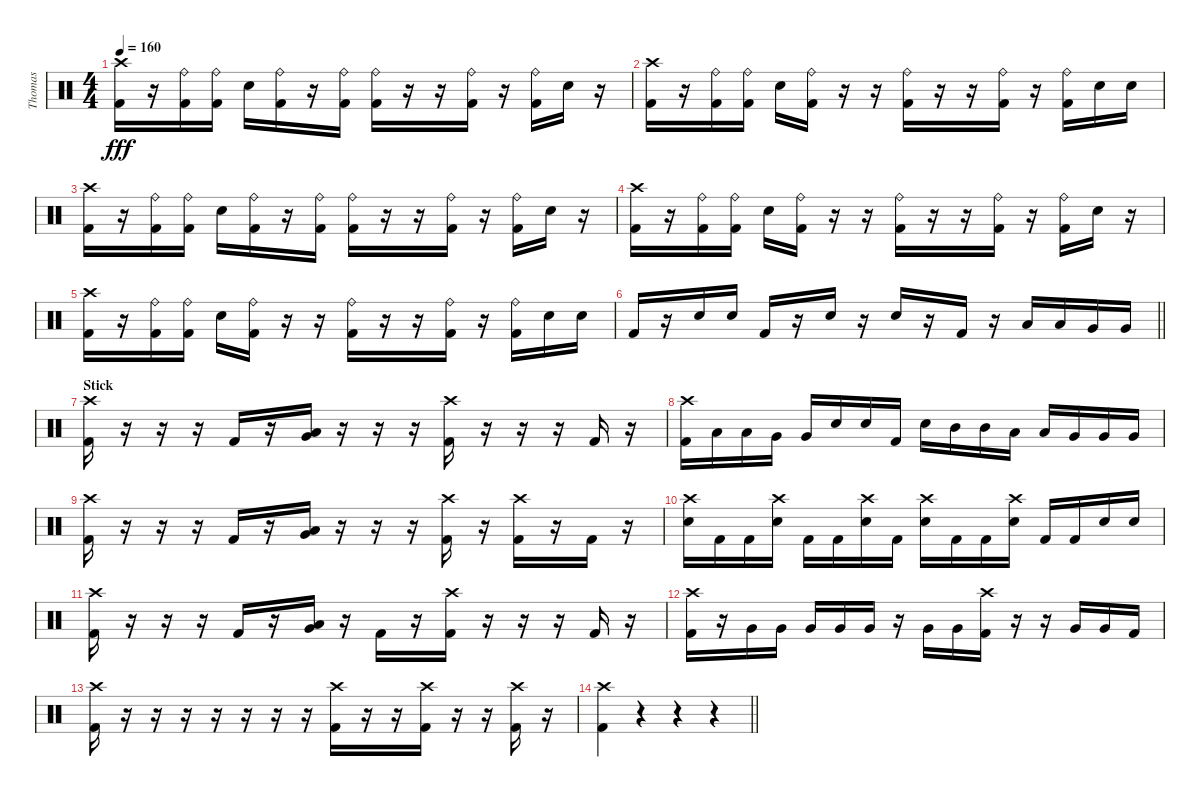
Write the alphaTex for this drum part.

\track ("Thomas " "Thomas ") {instrument percussion}
\staff {score}
\articulation defaults
\ts (4 4)
\tempo 160
\clef neutral
\ks c
("Crash high (hit)" "Kick (hit) 2").16{dy fff} r.16 ("Ride (bell)" "Kick (hit) 2").16 ("Ride (bell)" "Kick (hit) 2").16 "Electric Snare (hit)".16 ("Ride (bell)" "Kick (hit) 2").16 r.16 ("Ride (bell)" "Kick (hit) 2").16 ("Ride (bell)" "Kick (hit) 2").16 r.16 r.16 ("Ride (bell)" "Kick (hit) 2").16 r.16 ("Ride (bell)" "Kick (hit) 2").16 "Electric Snare (hit)".16 r.16 |
("Crash high (hit)" "Kick (hit) 2").16 r.16 ("Ride (bell)" "Kick (hit) 2").16 ("Ride (bell)" "Kick (hit) 2").16 "Electric Snare (hit)".16 ("Ride (bell)" "Kick (hit) 2").16 r.16 r.16 ("Ride (bell)" "Kick (hit) 2").16 r.16 r.16 ("Ride (bell)" "Kick (hit) 2").16 r.16 ("Ride (bell)" "Kick (hit) 2").16 "Electric Snare (hit)".16 "Electric Snare (hit)".16 |
("Crash high (hit)" "Kick (hit) 2").16 r.16 ("Ride (bell)" "Kick (hit) 2").16 ("Ride (bell)" "Kick (hit) 2").16 "Electric Snare (hit)".16 ("Ride (bell)" "Kick (hit) 2").16 r.16 ("Ride (bell)" "Kick (hit) 2").16 ("Ride (bell)" "Kick (hit) 2").16 r.16 r.16 ("Ride (bell)" "Kick (hit) 2").16 r.16 ("Ride (bell)" "Kick (hit) 2").16 "Electric Snare (hit)".16 r.16 |
("Crash high (hit)" "Kick (hit) 2").16 r.16 ("Ride (bell)" "Kick (hit) 2").16 ("Ride (bell)" "Kick (hit) 2").16 "Electric Snare (hit)".16 ("Ride (bell)" "Kick (hit) 2").16 r.16 r.16 ("Ride (bell)" "Kick (hit) 2").16 r.16 r.16 ("Ride (bell)" "Kick (hit) 2").16 r.16 ("Ride (bell)" "Kick (hit) 2").16 "Electric Snare (hit)".16 r.16 |
("Crash high (hit)" "Kick (hit) 2").16 r.16 ("Ride (bell)" "Kick (hit) 2").16 ("Ride (bell)" "Kick (hit) 2").16 "Electric Snare (hit)".16 ("Ride (bell)" "Kick (hit) 2").16 r.16 r.16 ("Ride (bell)" "Kick (hit) 2").16 r.16 r.16 ("Ride (bell)" "Kick (hit) 2").16 r.16 ("Ride (bell)" "Kick (hit) 2").16 "Electric Snare (hit)".16 "Electric Snare (hit)".16 |
\barLineRight lightlight "Kick (hit) 2".16
r.16 "Electric Snare (hit)".16 "Electric Snare (hit)".16 "Kick (hit) 2".16 r.16 "Electric Snare (hit)".16 r.16 "Electric Snare (hit)".16 r.16 "Kick (hit) 2".16 r.16 "Low Tom (hit)".16 "Low Tom (hit)".16 "Very Low Tom (hit)".16 "Very Low Tom (hit)".16 |
\section ("" "Stick")
("Crash high (hit)" "Kick (hit) 2").16 r.16 r.16 r.16 "Kick (hit) 2".16 r.16 ("Low Tom (hit)" "Very Low Tom (hit)").16 r.16 r.16 r.16 ("Crash high (hit)" "Kick (hit) 2").16 r.16 r.16 r.16 "Kick (hit) 2".16 r.16 |
("Crash high (hit)" "Kick (hit) 2").16 "Low Tom (hit)".16 "Low Tom (hit)".16 "Very Low Tom (hit)".16 "Very Low Tom (hit)".16 "Electric Snare (hit)".16 "Electric Snare (hit)".16 "Kick (hit) 2".16 "Electric Snare (hit)".16 "Mid Tom (hit)".16 "Mid Tom (hit)".16 "Low Tom (hit)".16 "Low Tom (hit)".16 "Very Low Tom (hit)".16 "Very Low Tom (hit)".16 "Very Low Tom (hit)".16 |
("Crash high (hit)" "Kick (hit) 2").16 r.16 r.16 r.16 "Kick (hit) 2".16 r.16 ("Low Tom (hit)" "Very Low Tom (hit)").16 r.16 r.16 r.16 ("Crash high (hit)" "Kick (hit) 2").16 r.16 ("Crash high (hit)" "Kick (hit) 2").16 r.16 "Kick (hit) 2".16 r.16 |
("Crash high (hit)" "Electric Snare (hit)").16 "Kick (hit) 2".16 "Kick (hit) 2".16 ("Crash high (hit)" "Electric Snare (hit)").16 "Kick (hit) 2".16 "Kick (hit) 2".16 ("Crash high (hit)" "Electric Snare (hit)").16 "Kick (hit) 2".16 ("Crash high (hit)" "Electric Snare (hit)").16 "Kick (hit) 2".16 "Kick (hit) 2".16 ("Crash high (hit)" "Electric Snare (hit)").16 "Kick (hit) 2".16 "Kick (hit) 2".16 "Electric Snare (hit)".16 "Electric Snare (hit)".16 |
("Crash high (hit)" "Kick (hit) 2").16 r.16 r.16 r.16 "Kick (hit) 2".16 r.16 ("Low Tom (hit)" "Very Low Tom (hit)").16 r.16 "Kick (hit) 2".16 r.16 ("Crash high (hit)" "Kick (hit) 2").16 r.16 r.16 r.16 "Kick (hit) 2".16 r.16 |
("Crash high (hit)" "Kick (hit) 2").16 r.16 "Very Low Tom (hit)".16 "Very Low Tom (hit)".16 "Very Low Tom (hit)".16 "Very Low Tom (hit)".16 "Very Low Tom (hit)".16 r.16 "Very Low Tom (hit)".16 "Very Low Tom (hit)".16 ("Crash high (hit)" "Kick (hit) 2").16 r.16 r.16 "Very Low Tom (hit)".16 "Very Low Tom (hit)".16 "Kick (hit) 2".16 |
("Crash high (hit)" "Kick (hit) 2").16 r.16 r.16 r.16 r.16 r.16 r.16 r.16 ("Crash high (hit)" "Kick (hit) 2").16 r.16 r.16 ("Crash high (hit)" "Kick (hit) 2").16 r.16 r.16 ("Crash high (hit)" "Kick (hit) 2").16 r.16 |
\barLineRight lightlight
("Crash high (hit)" "Kick (hit) 2").4 r.4 r.4 r.4
